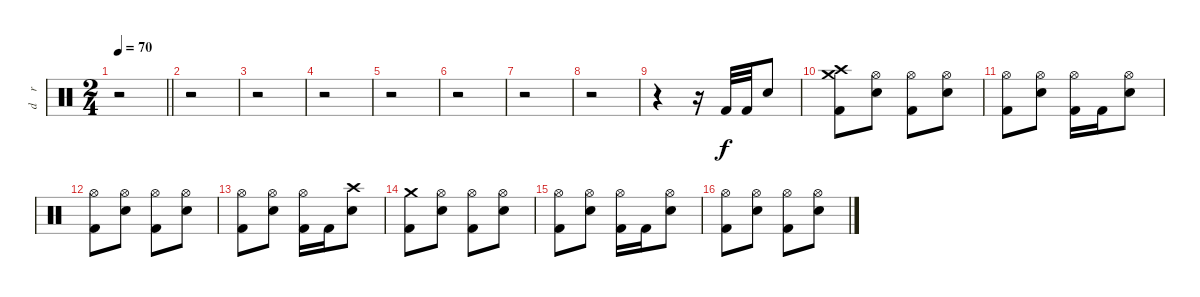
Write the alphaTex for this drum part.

\track ("d    r     u    m    s" "d    r    ") {instrument percussion}
\staff {score}
\articulation defaults
\ts (2 4)
\tempo 70
\clef neutral
\barLineRight lightlight
\ks c
r.2{dy f} |
r.2 |
r.2 |
r.2 |
r.2 |
r.2 |
r.2 |
r.2 |
r.4 r.16 "Kick (hit) 2".32 "Kick (hit) 2".32 "Electric Snare (hit)".8 |
("Crash medium (hit)" "Crash high (hit)" "Kick (hit) 2").8 ("Hi-Hat (open)" "Electric Snare (hit)").8 ("Hi-Hat (open)" "Kick (hit) 2").8 ("Hi-Hat (open)" "Electric Snare (hit)").8 |
("Hi-Hat (open)" "Kick (hit) 2").8 ("Hi-Hat (open)" "Electric Snare (hit)").8 ("Hi-Hat (open)" "Kick (hit) 2").16 "Kick (hit) 2".16 ("Hi-Hat (open)" "Electric Snare (hit)").8 |
("Hi-Hat (open)" "Kick (hit) 2").8 ("Hi-Hat (open)" "Electric Snare (hit)").8 ("Hi-Hat (open)" "Kick (hit) 2").8 ("Hi-Hat (open)" "Electric Snare (hit)").8 |
("Hi-Hat (open)" "Kick (hit) 2").8 ("Hi-Hat (open)" "Electric Snare (hit)").8 ("Hi-Hat (open)" "Kick (hit) 2").16 "Kick (hit) 2".16 ("Crash high (hit)" "Electric Snare (hit)").8 |
("Crash medium (hit)" "Kick (hit) 2").8 ("Hi-Hat (open)" "Electric Snare (hit)").8 ("Hi-Hat (open)" "Kick (hit) 2").8 ("Hi-Hat (open)" "Electric Snare (hit)").8 |
("Hi-Hat (open)" "Kick (hit) 2").8 ("Hi-Hat (open)" "Electric Snare (hit)").8 ("Hi-Hat (open)" "Kick (hit) 2").16 "Kick (hit) 2".16 ("Hi-Hat (open)" "Electric Snare (hit)").8 |
("Hi-Hat (open)" "Kick (hit) 2").8 ("Hi-Hat (open)" "Electric Snare (hit)").8 ("Hi-Hat (open)" "Kick (hit) 2").8 ("Hi-Hat (open)" "Electric Snare (hit)").8
